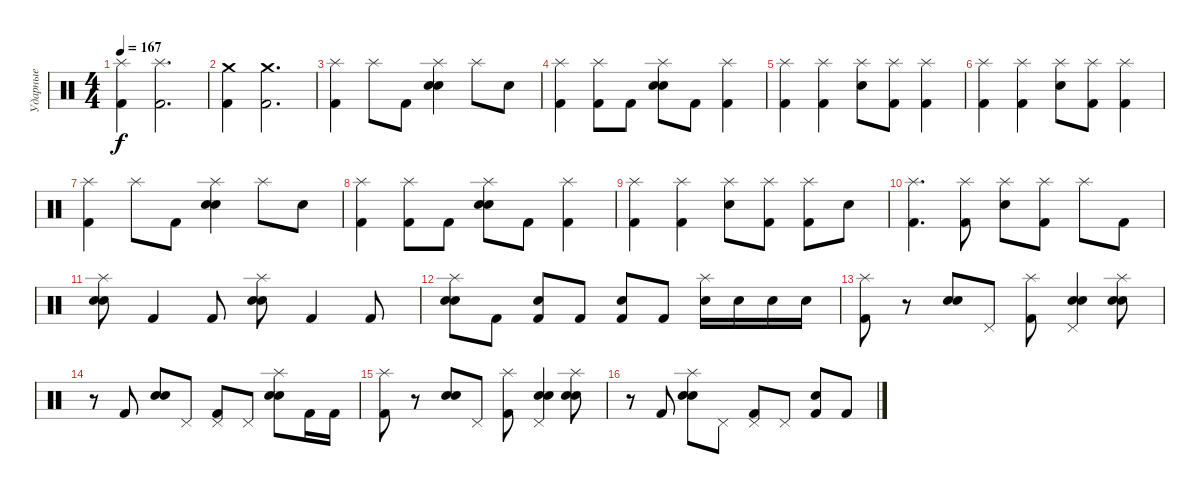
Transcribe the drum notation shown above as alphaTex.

\track ("Ударные" "Ударные") {instrument percussion}
\staff {score}
\articulation defaults
\ts (4 4)
\tempo 167
\clef neutral
\ks c
("Splash (hit)" "Kick (hit) 2").4{dy f} ("Splash (hit)" "Kick (hit) 2").2{d} |
("Crash medium (hit)" "Kick (hit) 2").4 ("Crash medium (hit)" "Kick (hit) 2").2{d} |
("Splash (hit)" "Kick (hit) 2").4 "Splash (hit)".8 "Kick (hit) 2".8 ("Splash (hit)" "Electric Snare (hit)" "Snare (hit) 2").4 "Splash (hit)".8 "Electric Snare (hit)".8 |
("Splash (hit)" "Kick (hit) 2").4 ("Splash (hit)" "Kick (hit) 2").8 "Kick (hit) 2".8 ("Splash (hit)" "Electric Snare (hit)" "Snare (hit) 2").8 "Kick (hit) 2".8 ("Splash (hit)" "Kick (hit) 2").4 |
("Splash (hit)" "Kick (hit) 2").4 ("Splash (hit)" "Kick (hit) 2").4 ("Splash (hit)" "Electric Snare (hit)").8 ("Splash (hit)" "Kick (hit) 2").8 ("Splash (hit)" "Kick (hit) 2").4 |
("Splash (hit)" "Kick (hit) 2").4 ("Splash (hit)" "Kick (hit) 2").4 ("Splash (hit)" "Electric Snare (hit)").8 ("Splash (hit)" "Kick (hit) 2").8 ("Splash (hit)" "Kick (hit) 2").4 |
("Splash (hit)" "Kick (hit) 2").4 "Splash (hit)".8 "Kick (hit) 2".8 ("Splash (hit)" "Electric Snare (hit)" "Snare (hit) 2").4 "Splash (hit)".8 "Electric Snare (hit)".8 |
("Splash (hit)" "Kick (hit) 2").4 ("Splash (hit)" "Kick (hit) 2").8 "Kick (hit) 2".8 ("Splash (hit)" "Electric Snare (hit)" "Snare (hit) 2").8 "Kick (hit) 2".8 ("Splash (hit)" "Kick (hit) 2").4 |
("Splash (hit)" "Kick (hit) 2").4 ("Splash (hit)" "Kick (hit) 2").4 ("Splash (hit)" "Electric Snare (hit)").8 ("Splash (hit)" "Kick (hit) 2").8 ("Splash (hit)" "Kick (hit) 2").8 "Electric Snare (hit)".8 |
("Splash (hit)" "Kick (hit) 2").4{d} ("Splash (hit)" "Kick (hit) 2").8 ("Splash (hit)" "Electric Snare (hit)").8 ("Splash (hit)" "Kick (hit) 2").8 "Splash (hit)".8 "Kick (hit) 2".8 |
("Splash (hit)" "Electric Snare (hit)" "Snare (hit) 2").8 "Kick (hit) 2".4 "Kick (hit) 2".8 ("Splash (hit)" "Electric Snare (hit)" "Snare (hit) 2").8 "Kick (hit) 2".4 "Kick (hit) 2".8 |
("Splash (hit)" "Electric Snare (hit)" "Snare (hit) 2").8 "Kick (hit) 2".8 ("Snare (hit) 2" "Kick (hit) 2").8 "Kick (hit) 2".8 ("Snare (hit) 2" "Kick (hit) 2").8 "Kick (hit) 2".8 ("Splash (hit)" "Electric Snare (hit)").16 "Electric Snare (hit)".16 "Electric Snare (hit)".16 "Electric Snare (hit)".16 |
("Splash (hit)" "Kick (hit) 2").8 r.8 ("Electric Snare (hit)" "Snare (hit) 2").8 "Pedal Hi-Hat (hit)".8 ("Splash (hit)" "Kick (hit) 2").8 ("Pedal Hi-Hat (hit)" "Electric Snare (hit)" "Snare (hit) 2").4 ("Splash (hit)" "Electric Snare (hit)" "Snare (hit) 2").8 |
r.8 "Kick (hit) 2".8 ("Electric Snare (hit)" "Snare (hit) 2").8 "Pedal Hi-Hat (hit)".8 ("Pedal Hi-Hat (hit)" "Kick (hit) 2").8 "Pedal Hi-Hat (hit)".8 ("Splash (hit)" "Electric Snare (hit)" "Snare (hit) 2").8 "Kick (hit) 2".16 "Kick (hit) 2".16 |
("Splash (hit)" "Kick (hit) 2").8 r.8 ("Electric Snare (hit)" "Snare (hit) 2").8 "Pedal Hi-Hat (hit)".8 ("Splash (hit)" "Kick (hit) 2").8 ("Pedal Hi-Hat (hit)" "Electric Snare (hit)" "Snare (hit) 2").4 ("Splash (hit)" "Electric Snare (hit)" "Snare (hit) 2").8 |
r.8 "Kick (hit) 2".8 ("Splash (hit)" "Electric Snare (hit)" "Snare (hit) 2").8 "Pedal Hi-Hat (hit)".8 ("Pedal Hi-Hat (hit)" "Kick (hit) 2").8 "Pedal Hi-Hat (hit)".8 ("Snare (hit) 2" "Kick (hit) 2").8 "Kick (hit) 2".8
